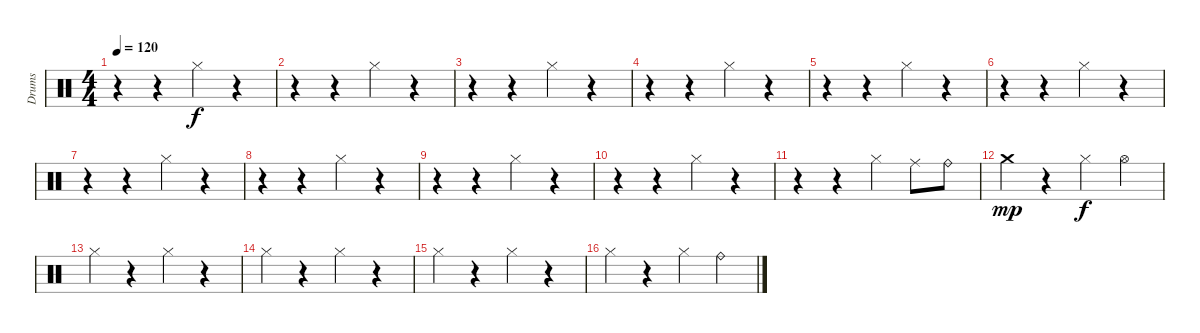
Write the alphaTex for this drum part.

\track ("Drums" "Drums") {instrument percussion}
\staff {score}
\articulation defaults
\ts (4 4)
\tempo 120
\clef neutral
\ks c
r.4{dy f} r.4 "Hi-Hat (closed)".4 r.4 |
r.4 r.4 "Hi-Hat (closed)".4 r.4 |
r.4 r.4 "Hi-Hat (closed)".4 r.4 |
r.4 r.4 "Hi-Hat (closed)".4 r.4 |
r.4 r.4 "Hi-Hat (closed)".4 r.4 |
r.4 r.4 "Hi-Hat (closed)".4 r.4 |
r.4 r.4 "Hi-Hat (closed)".4 r.4 |
r.4 r.4 "Hi-Hat (closed)".4 r.4 |
r.4 r.4 "Hi-Hat (closed)".4 r.4 |
r.4 r.4 "Hi-Hat (closed)".4 r.4 |
r.4 r.4 "Hi-Hat (closed)".4 "Ride (middle)".8 "Ride (bell)".8 |
"Crash medium (hit)".4{dy mp} r.4 "Hi-Hat (closed)".4{dy f} "Hi-Hat (open)".4 |
"Hi-Hat (closed)".4 r.4 "Hi-Hat (closed)".4 r.4 |
"Hi-Hat (closed)".4 r.4 "Hi-Hat (closed)".4 r.4 |
"Hi-Hat (closed)".4 r.4 "Hi-Hat (closed)".4 r.4 |
"Hi-Hat (closed)".4 r.4 "Hi-Hat (closed)".4 "Ride (bell)".4
